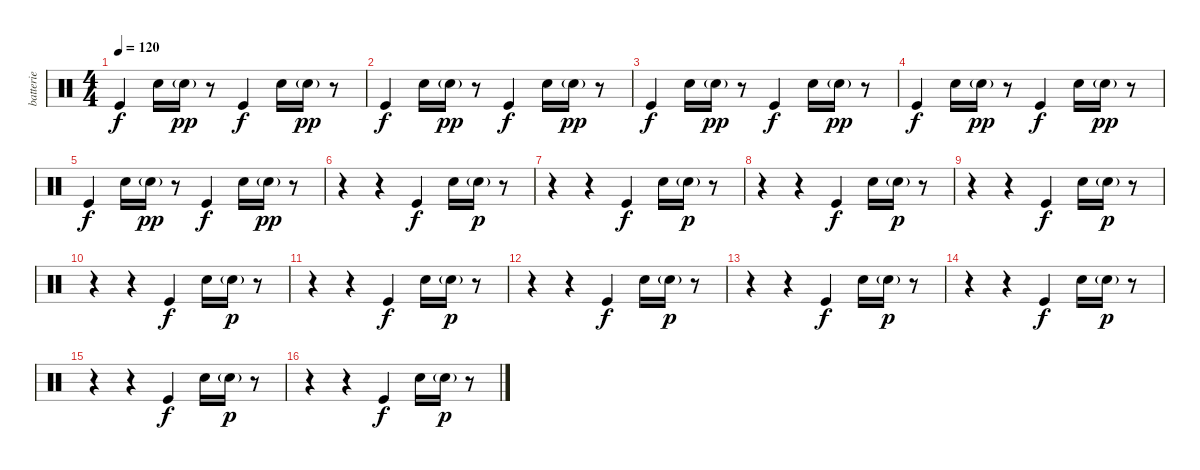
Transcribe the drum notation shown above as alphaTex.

\track ("batterie" "batterie") {instrument percussion}
\staff {score}
\articulation defaults
\ts (4 4)
\tempo 120
\clef neutral
\ks c "Kick (hit)".4{dy f} "Electric Snare (hit)".16 "Electric Snare (hit)"{g}.16{dy pp}
r.8 "Kick (hit)".4{dy f} "Electric Snare (hit)".16 "Electric Snare (hit)"{g}.16{dy pp} r.8 |
"Kick (hit)".4{dy f} "Electric Snare (hit)".16 "Electric Snare (hit)"{g}.16{dy pp} r.8 "Kick (hit)".4{dy f} "Electric Snare (hit)".16 "Electric Snare (hit)"{g}.16{dy pp} r.8 |
"Kick (hit)".4{dy f} "Electric Snare (hit)".16 "Electric Snare (hit)"{g}.16{dy pp} r.8 "Kick (hit)".4{dy f} "Electric Snare (hit)".16 "Electric Snare (hit)"{g}.16{dy pp} r.8 |
"Kick (hit)".4{dy f} "Electric Snare (hit)".16 "Electric Snare (hit)"{g}.16{dy pp} r.8 "Kick (hit)".4{dy f} "Electric Snare (hit)".16 "Electric Snare (hit)"{g}.16{dy pp} r.8 |
"Kick (hit)".4{dy f} "Electric Snare (hit)".16 "Electric Snare (hit)"{g}.16{dy pp} r.8 "Kick (hit)".4{dy f} "Electric Snare (hit)".16 "Electric Snare (hit)"{g}.16{dy pp} r.8 |
r.4 r.4 "Kick (hit)".4{dy f} "Electric Snare (hit)".16 "Electric Snare (hit)"{g}.16{dy p} r.8 |
r.4 r.4 "Kick (hit)".4{dy f} "Electric Snare (hit)".16 "Electric Snare (hit)"{g}.16{dy p} r.8 |
r.4 r.4 "Kick (hit)".4{dy f} "Electric Snare (hit)".16 "Electric Snare (hit)"{g}.16{dy p} r.8 |
r.4 r.4 "Kick (hit)".4{dy f} "Electric Snare (hit)".16 "Electric Snare (hit)"{g}.16{dy p} r.8 |
r.4 r.4 "Kick (hit)".4{dy f} "Electric Snare (hit)".16 "Electric Snare (hit)"{g}.16{dy p} r.8 |
r.4 r.4 "Kick (hit)".4{dy f} "Electric Snare (hit)".16 "Electric Snare (hit)"{g}.16{dy p} r.8 |
r.4 r.4 "Kick (hit)".4{dy f} "Electric Snare (hit)".16 "Electric Snare (hit)"{g}.16{dy p} r.8 |
r.4 r.4 "Kick (hit)".4{dy f} "Electric Snare (hit)".16 "Electric Snare (hit)"{g}.16{dy p} r.8 |
r.4 r.4 "Kick (hit)".4{dy f} "Electric Snare (hit)".16 "Electric Snare (hit)"{g}.16{dy p} r.8 |
r.4 r.4 "Kick (hit)".4{dy f} "Electric Snare (hit)".16 "Electric Snare (hit)"{g}.16{dy p} r.8 |
r.4 r.4 "Kick (hit)".4{dy f} "Electric Snare (hit)".16 "Electric Snare (hit)"{g}.16{dy p} r.8
